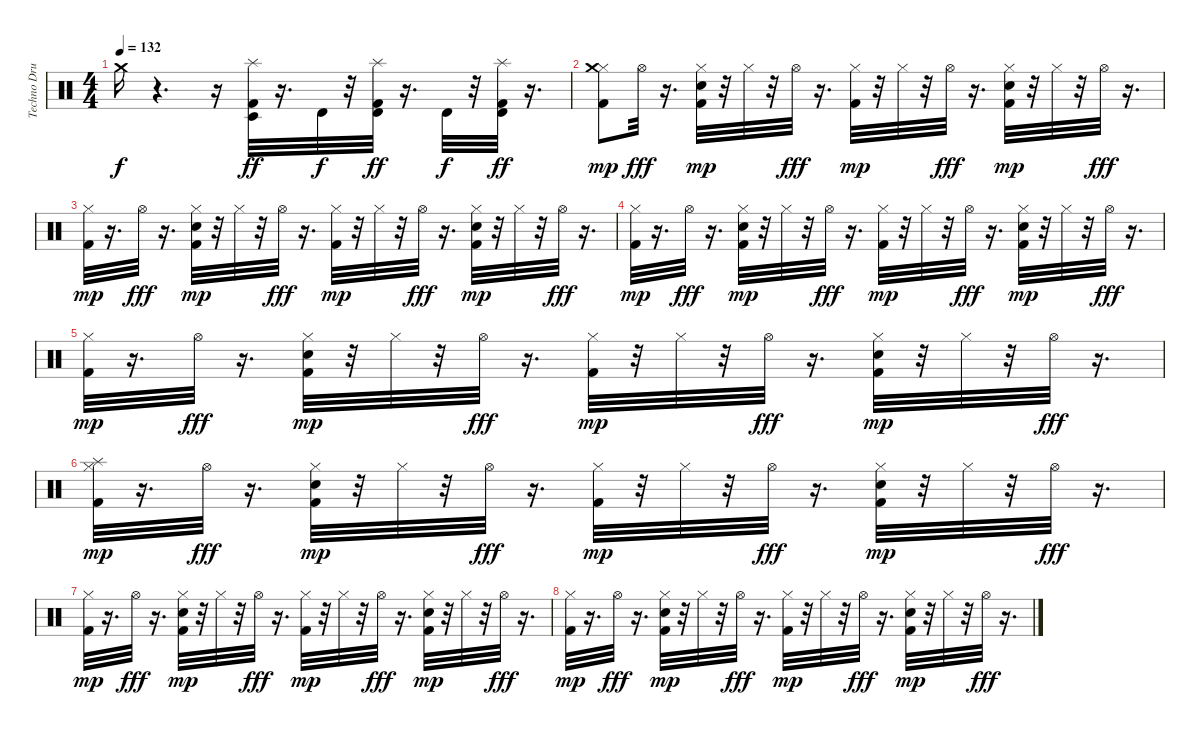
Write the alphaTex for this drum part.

\track ("Techno Drums" "Techno Dru") {instrument percussion}
\staff {score}
\articulation defaults
\ts (4 4)
\tempo 132
\clef neutral
\ks c "Crash medium (hit)".16{dy f}
r.4{d} r.16 ("Timbale low (hit)" "Splash (hit)" "Kick (hit) 2").32{dy ff} r.16{d} "Timbale high (hit)".32{dy f} r.32 ("Timbale high (hit)" "Splash (hit)" "Kick (hit) 2").32{dy ff} r.16{d} "Timbale high (hit)".32{dy f} r.32 ("Timbale high (hit)" "Splash (hit)" "Kick (hit) 2").32{dy ff} r.16{d} |
("Kick (hit) 2" "Hi-Hat (closed)" "Crash medium (hit)").8{dy mp} "Hi-Hat (open)".32{dy fff} r.16{d} ("Kick (hit) 2" "Hand Clap (hit)" "Hi-Hat (closed)").32{dy mp} r.32 "Hi-Hat (closed)".32 r.32 "Hi-Hat (open)".32{dy fff} r.16{d} ("Kick (hit) 2" "Hi-Hat (closed)").32{dy mp} r.32 "Hi-Hat (closed)".32 r.32 "Hi-Hat (open)".32{dy fff} r.16{d} ("Kick (hit) 2" "Hand Clap (hit)" "Hi-Hat (closed)").32{dy mp} r.32 "Hi-Hat (closed)".32 r.32 "Hi-Hat (open)".32{dy fff} r.16{d} |
("Kick (hit) 2" "Hi-Hat (closed)").32{dy mp} r.16{d} "Hi-Hat (open)".32{dy fff} r.16{d} ("Kick (hit) 2" "Hand Clap (hit)" "Hi-Hat (closed)").32{dy mp} r.32 "Hi-Hat (closed)".32 r.32 "Hi-Hat (open)".32{dy fff} r.16{d} ("Kick (hit) 2" "Hi-Hat (closed)").32{dy mp} r.32 "Hi-Hat (closed)".32 r.32 "Hi-Hat (open)".32{dy fff} r.16{d} ("Kick (hit) 2" "Hand Clap (hit)" "Hi-Hat (closed)").32{dy mp} r.32 "Hi-Hat (closed)".32 r.32 "Hi-Hat (open)".32{dy fff} r.16{d} |
("Kick (hit) 2" "Hi-Hat (closed)").32{dy mp} r.16{d} "Hi-Hat (open)".32{dy fff} r.16{d} ("Kick (hit) 2" "Hand Clap (hit)" "Hi-Hat (closed)").32{dy mp} r.32 "Hi-Hat (closed)".32 r.32 "Hi-Hat (open)".32{dy fff} r.16{d} ("Kick (hit) 2" "Hi-Hat (closed)").32{dy mp} r.32 "Hi-Hat (closed)".32 r.32 "Hi-Hat (open)".32{dy fff} r.16{d} ("Kick (hit) 2" "Hand Clap (hit)" "Hi-Hat (closed)").32{dy mp} r.32 "Hi-Hat (closed)".32 r.32 "Hi-Hat (open)".32{dy fff} r.16{d} |
("Kick (hit) 2" "Hi-Hat (closed)").32{dy mp} r.16{d} "Hi-Hat (open)".32{dy fff} r.16{d} ("Kick (hit) 2" "Hand Clap (hit)" "Hi-Hat (closed)").32{dy mp} r.32 "Hi-Hat (closed)".32 r.32 "Hi-Hat (open)".32{dy fff} r.16{d} ("Kick (hit) 2" "Hi-Hat (closed)").32{dy mp} r.32 "Hi-Hat (closed)".32 r.32 "Hi-Hat (open)".32{dy fff} r.16{d} ("Kick (hit) 2" "Hand Clap (hit)" "Hi-Hat (closed)").32{dy mp} r.32 "Hi-Hat (closed)".32 r.32 "Hi-Hat (open)".32{dy fff} r.16{d} |
("Kick (hit) 2" "Hi-Hat (closed)" "Splash (hit)").32{dy mp} r.16{d} "Hi-Hat (open)".32{dy fff} r.16{d} ("Kick (hit) 2" "Hand Clap (hit)" "Hi-Hat (closed)").32{dy mp} r.32 "Hi-Hat (closed)".32 r.32 "Hi-Hat (open)".32{dy fff} r.16{d} ("Kick (hit) 2" "Hi-Hat (closed)").32{dy mp} r.32 "Hi-Hat (closed)".32 r.32 "Hi-Hat (open)".32{dy fff} r.16{d} ("Kick (hit) 2" "Hand Clap (hit)" "Hi-Hat (closed)").32{dy mp} r.32 "Hi-Hat (closed)".32 r.32 "Hi-Hat (open)".32{dy fff} r.16{d} |
("Kick (hit) 2" "Hi-Hat (closed)").32{dy mp} r.16{d} "Hi-Hat (open)".32{dy fff} r.16{d} ("Kick (hit) 2" "Hand Clap (hit)" "Hi-Hat (closed)").32{dy mp} r.32 "Hi-Hat (closed)".32 r.32 "Hi-Hat (open)".32{dy fff} r.16{d} ("Kick (hit) 2" "Hi-Hat (closed)").32{dy mp} r.32 "Hi-Hat (closed)".32 r.32 "Hi-Hat (open)".32{dy fff} r.16{d} ("Kick (hit) 2" "Hand Clap (hit)" "Hi-Hat (closed)").32{dy mp} r.32 "Hi-Hat (closed)".32 r.32 "Hi-Hat (open)".32{dy fff} r.16{d} |
("Kick (hit) 2" "Hi-Hat (closed)").32{dy mp} r.16{d} "Hi-Hat (open)".32{dy fff} r.16{d} ("Kick (hit) 2" "Hand Clap (hit)" "Hi-Hat (closed)").32{dy mp} r.32 "Hi-Hat (closed)".32 r.32 "Hi-Hat (open)".32{dy fff} r.16{d} ("Kick (hit) 2" "Hi-Hat (closed)").32{dy mp} r.32 "Hi-Hat (closed)".32 r.32 "Hi-Hat (open)".32{dy fff} r.16{d} ("Kick (hit) 2" "Hand Clap (hit)" "Hi-Hat (closed)").32{dy mp} r.32 "Hi-Hat (closed)".32 r.32 "Hi-Hat (open)".32{dy fff} r.16{d}
